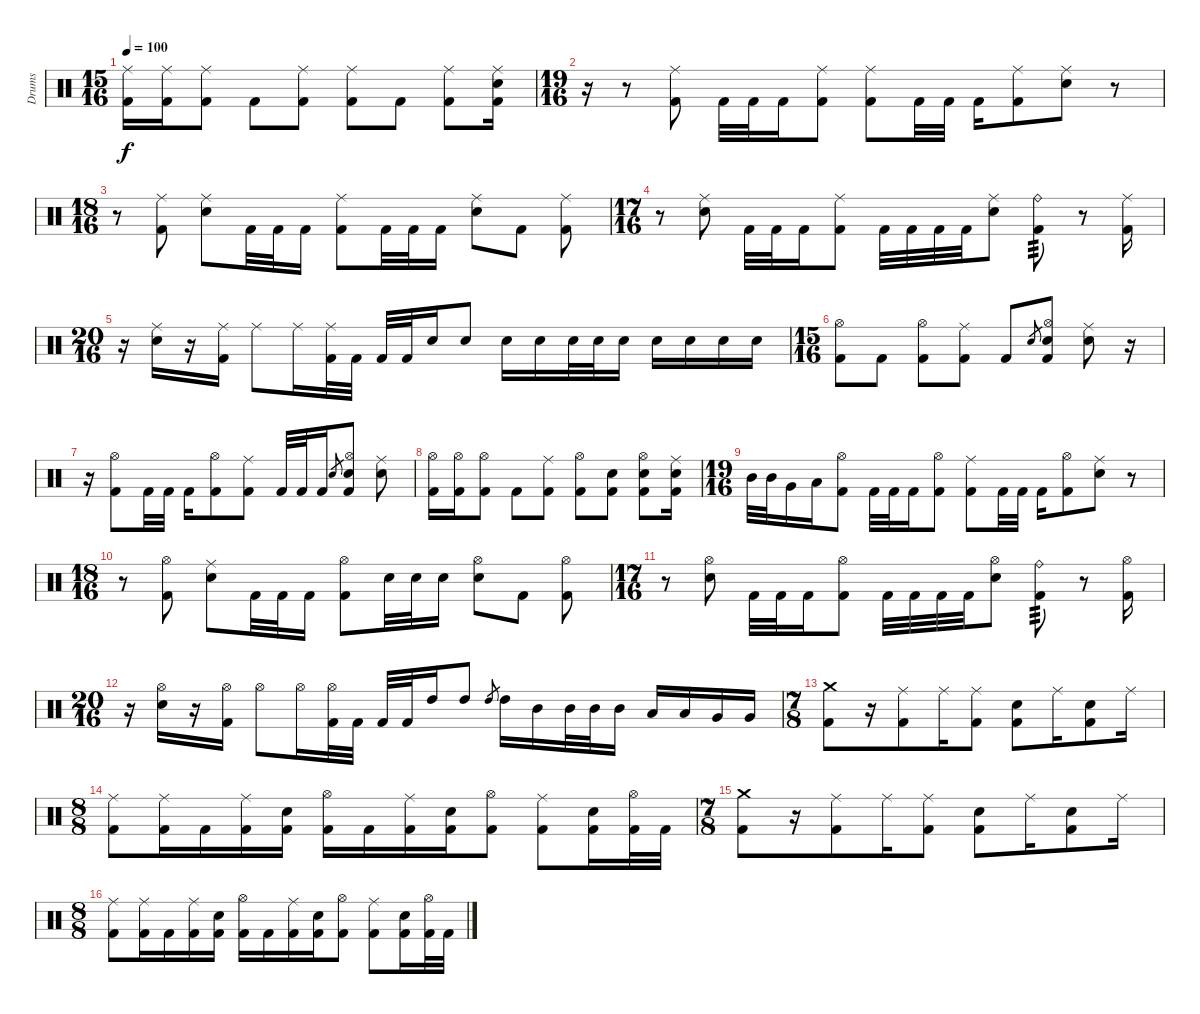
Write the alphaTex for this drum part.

\track ("Drums" "Drums") {instrument percussion}
\staff {score}
\articulation defaults
\ts (15 16)
\tempo 100
\clef neutral
\ks c
("Ride (middle)" "Kick (hit) 2").16{dy f} ("Ride (middle)" "Kick (hit) 2").16 ("Ride (middle)" "Kick (hit) 2").8 "Kick (hit) 2".8 ("Ride (middle)" "Kick (hit) 2").8 ("Ride (middle)" "Kick (hit) 2").8 "Kick (hit) 2".8 ("Ride (middle)" "Kick (hit) 2").8 ("Ride (middle)" "Snare (hit) 2" "Kick (hit) 2").16 |
\ts (19 16)
r.16 r.8 ("Ride (middle)" "Kick (hit) 2").8 "Kick (hit) 2".32 "Kick (hit) 2".32 "Kick (hit) 2".16 ("Ride (middle)" "Kick (hit) 2").8 ("Ride (middle)" "Kick (hit) 2").8 "Kick (hit) 2".32 "Kick (hit) 2".32 "Kick (hit) 2".16 ("Ride (middle)" "Kick (hit) 2").8 ("Ride (middle)" "Snare (hit) 2").8 r.8 |
\ts (18 16)
r.8 ("Ride (middle)" "Kick (hit) 2").8 ("Ride (middle)" "Snare (hit) 2").8 "Kick (hit) 2".32 "Kick (hit) 2".32 "Kick (hit) 2".16 ("Ride (middle)" "Kick (hit) 2").8 "Kick (hit) 2".32 "Kick (hit) 2".32 "Kick (hit) 2".16 ("Ride (middle)" "Snare (hit) 2").8 "Kick (hit) 2".8 ("Ride (middle)" "Kick (hit) 2").8 |
\ts (17 16)
r.8 ("Ride (middle)" "Snare (hit) 2").8 "Kick (hit) 2".32 "Kick (hit) 2".32 "Kick (hit) 2".16 ("Ride (middle)" "Kick (hit) 2").8 "Kick (hit) 2".32 "Kick (hit) 2".32 "Kick (hit) 2".32 "Kick (hit) 2".32 ("Ride (middle)" "Snare (hit) 2").8 ("Ride (bell)" "Kick (hit) 2").8{tp 3} r.8 ("Ride (middle)" "Kick (hit) 2").16 |
\ts (20 16)
r.16 ("Ride (middle)" "Snare (hit) 2").16 r.16 ("Ride (middle)" "Kick (hit) 2").16 "Ride (middle)".8 "Ride (middle)".16 ("Ride (middle)" "Kick (hit) 2").32 "Kick (hit) 2".32 "Kick (hit) 2".32 "Kick (hit) 2".32 "Snare (hit) 2".16 "Snare (hit) 2".8 "Snare (hit) 2".16 "Snare (hit) 2".16 "Snare (hit) 2".32 "Snare (hit) 2".32 "Snare (hit) 2".16 "Snare (hit) 2".16 "Snare (hit) 2".16 "Snare (hit) 2".16 "Snare (hit) 2".16 |
\ts (15 16)
("Hi-Hat (open)" "Kick (hit) 2").8 "Kick (hit) 2".8 ("Hi-Hat (open)" "Kick (hit) 2").8 ("Ride (middle)" "Kick (hit) 2").8 "Kick (hit) 2".8 "Electric Snare (hit)".8{gr} ("Hi-Hat (open)" "Electric Snare (hit)" "Kick (hit) 2").8 ("Ride (middle)" "Snare (hit) 2").8 r.16 |
r.16 ("Hi-Hat (open)" "Kick (hit) 2").8 "Kick (hit) 2".32 "Kick (hit) 2".32 "Kick (hit) 2".16 ("Hi-Hat (open)" "Kick (hit) 2").8 ("Ride (middle)" "Kick (hit) 2").8 "Kick (hit) 2".32 "Kick (hit) 2".32 "Kick (hit) 2".16 "Electric Snare (hit)".8{gr} ("Hi-Hat (open)" "Electric Snare (hit)" "Kick (hit) 2").8 ("Ride (middle)" "Snare (hit) 2").8 |
("Hi-Hat (open)" "Kick (hit) 2").16 ("Hi-Hat (open)" "Kick (hit) 2").16 ("Hi-Hat (open)" "Kick (hit) 2").8 "Kick (hit) 2".8 ("Ride (middle)" "Kick (hit) 2").8 ("Hi-Hat (open)" "Kick (hit) 2").8 ("Electric Snare (hit)" "Kick (hit) 2").8 ("Hi-Hat (open)" "Electric Snare (hit)" "Kick (hit) 2").8 ("Ride (middle)" "Snare (hit) 2" "Kick (hit) 2").16 |
\ts (19 16)
"Mid Tom (hit)".32 "Mid Tom (hit)".32 "Very Low Tom (hit)".16 "Low Tom (hit)".16 ("Hi-Hat (open)" "Kick (hit) 2").8 "Kick (hit) 2".32 "Kick (hit) 2".32 "Kick (hit) 2".16 ("Hi-Hat (open)" "Kick (hit) 2").8 ("Ride (middle)" "Kick (hit) 2").8 "Kick (hit) 2".32 "Kick (hit) 2".32 "Kick (hit) 2".16 ("Hi-Hat (open)" "Kick (hit) 2").8 ("Ride (middle)" "Snare (hit) 2").8 r.8 |
\ts (18 16)
r.8 ("Hi-Hat (open)" "Kick (hit) 2").8 ("Ride (middle)" "Snare (hit) 2").8 "Kick (hit) 2".32 "Kick (hit) 2".32 "Kick (hit) 2".16 ("Hi-Hat (open)" "Kick (hit) 2").8 "Electric Snare (hit)".32 "Electric Snare (hit)".32 "Electric Snare (hit)".16 ("Hi-Hat (open)" "Snare (hit) 2").8 "Kick (hit) 2".8 ("Hi-Hat (open)" "Kick (hit) 2").8 |
\ts (17 16)
r.8 ("Hi-Hat (open)" "Snare (hit) 2").8 "Kick (hit) 2".32 "Kick (hit) 2".32 "Kick (hit) 2".16 ("Hi-Hat (open)" "Kick (hit) 2").8 "Kick (hit) 2".32 "Kick (hit) 2".32 "Kick (hit) 2".32 "Kick (hit) 2".32 ("Hi-Hat (open)" "Snare (hit) 2").8 ("Ride (bell)" "Kick (hit) 2").8{tp 3} r.8 ("Hi-Hat (open)" "Kick (hit) 2").16 |
\ts (20 16)
r.16 ("Hi-Hat (open)" "Snare (hit) 2").16 r.16 ("Hi-Hat (open)" "Kick (hit) 2").16 "Hi-Hat (open)".8 "Hi-Hat (open)".16 ("Hi-Hat (open)" "Kick (hit) 2").32 "Kick (hit) 2".32 "Kick (hit) 2".32 "Kick (hit) 2".32 "High Tom (hit)".16 "High Tom (hit)".8 "High Tom (hit)".8{gr} "High Tom (hit)".16 "Mid Tom (hit)".16 "Mid Tom (hit)".32 "Mid Tom (hit)".32 "Mid Tom (hit)".16 "Low Tom (hit)".16 "Low Tom (hit)".16 "Very Low Tom (hit)".16 "Very Low Tom (hit)".16 |
\ts (7 8)
("Crash medium (hit)" "Kick (hit) 2").8 r.16 ("Ride (middle)" "Kick (hit) 2").8 "Ride (middle)".16 ("Ride (middle)" "Kick (hit) 2").8 ("Snare (hit) 2" "Kick (hit) 2").8 "Ride (middle)".16 ("Snare (hit) 2" "Kick (hit) 2").8 "Ride (middle)".16 |
\ts (8 8)
("Ride (middle)" "Kick (hit) 2").8 ("Ride (middle)" "Kick (hit) 2").16 "Kick (hit) 2".16 ("Ride (middle)" "Kick (hit) 2").16 ("Snare (hit) 2" "Kick (hit) 2").16 ("Hi-Hat (open)" "Kick (hit) 2").16 "Kick (hit) 2".16 ("Ride (middle)" "Kick (hit) 2").16 ("Snare (hit) 2" "Kick (hit) 2").16 ("Hi-Hat (open)" "Kick (hit) 2").8 ("Ride (middle)" "Kick (hit) 2").8 ("Snare (hit) 2" "Kick (hit) 2").16 ("Hi-Hat (open)" "Kick (hit) 2").32 "Kick (hit) 2".32 |
\ts (7 8)
("Crash medium (hit)" "Kick (hit) 2").8 r.16 ("Ride (middle)" "Kick (hit) 2").8 "Ride (middle)".16 ("Ride (middle)" "Kick (hit) 2").8 ("Snare (hit) 2" "Kick (hit) 2").8 "Ride (middle)".16 ("Snare (hit) 2" "Kick (hit) 2").8 "Ride (middle)".16 |
\ts (8 8)
("Ride (middle)" "Kick (hit) 2").8 ("Ride (middle)" "Kick (hit) 2").16 "Kick (hit) 2".16 ("Ride (middle)" "Kick (hit) 2").16 ("Snare (hit) 2" "Kick (hit) 2").16 ("Hi-Hat (open)" "Kick (hit) 2").16 "Kick (hit) 2".16 ("Ride (middle)" "Kick (hit) 2").16 ("Snare (hit) 2" "Kick (hit) 2").16 ("Hi-Hat (open)" "Kick (hit) 2").8 ("Ride (middle)" "Kick (hit) 2").8 ("Snare (hit) 2" "Kick (hit) 2").16 ("Hi-Hat (open)" "Kick (hit) 2").32 "Kick (hit) 2".32
